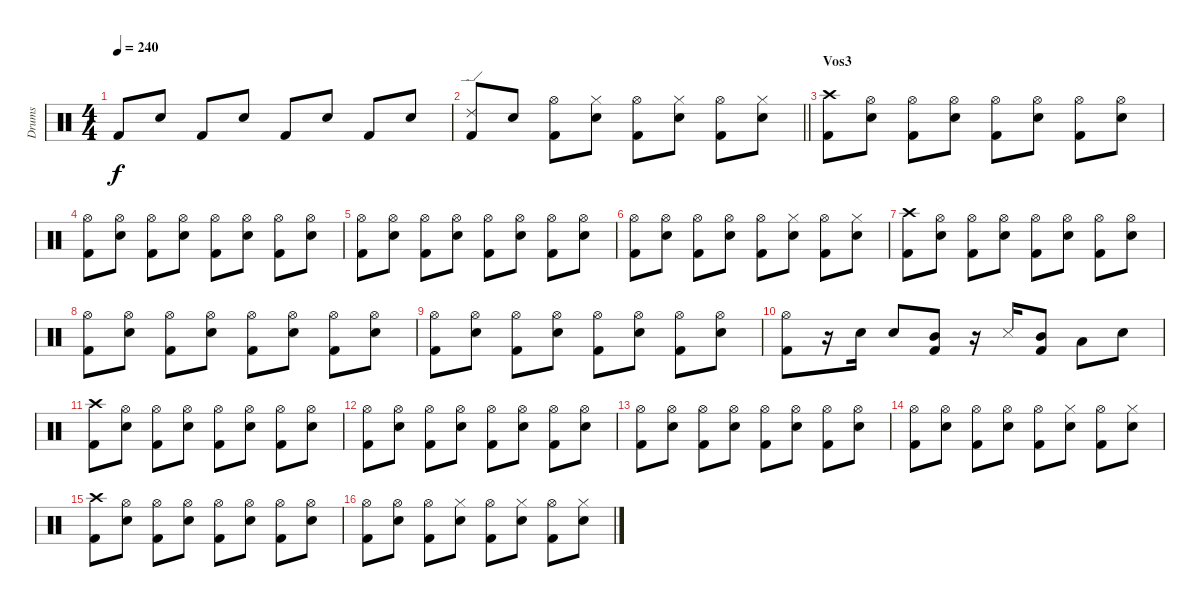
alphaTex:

\track ("Drums" "Drums") {instrument percussion}
\staff {score}
\articulation defaults
\ts (4 4)
\tempo 240
\clef neutral
\ks c "Kick (hit) 2".8{dy f} "Snare (hit) 2".8 "Kick (hit) 2".8 "Snare (hit) 2".8 "Kick (hit) 2".8 "Snare (hit) 2".8 "Kick (hit) 2".8 "Snare (hit) 2".8
|
\barLineRight lightlight
("Ride (edge) 2" "Kick (hit) 2").8 "Snare (hit) 2".8 ("Hi-Hat (open)" "Kick (hit) 2").8 ("Hi-Hat (closed)" "Snare (hit) 2").8 ("Hi-Hat (open)" "Kick (hit) 2").8 ("Hi-Hat (closed)" "Snare (hit) 2").8 ("Hi-Hat (open)" "Kick (hit) 2").8 ("Hi-Hat (closed)" "Snare (hit) 2").8 |
\section ("" "Vos3")
("Crash high (hit)" "Kick (hit) 2").8 ("Hi-Hat (open)" "Snare (hit) 2").8 ("Hi-Hat (open)" "Kick (hit) 2").8 ("Hi-Hat (open)" "Snare (hit) 2").8 ("Hi-Hat (open)" "Kick (hit) 2").8 ("Hi-Hat (open)" "Snare (hit) 2").8 ("Hi-Hat (open)" "Kick (hit) 2").8 ("Hi-Hat (open)" "Snare (hit) 2").8 |
("Hi-Hat (open)" "Kick (hit) 2").8 ("Hi-Hat (open)" "Snare (hit) 2").8 ("Hi-Hat (open)" "Kick (hit) 2").8 ("Hi-Hat (open)" "Snare (hit) 2").8 ("Hi-Hat (open)" "Kick (hit) 2").8 ("Hi-Hat (open)" "Snare (hit) 2").8 ("Hi-Hat (open)" "Kick (hit) 2").8 ("Hi-Hat (open)" "Snare (hit) 2").8 |
("Hi-Hat (open)" "Kick (hit) 2").8 ("Hi-Hat (open)" "Snare (hit) 2").8 ("Hi-Hat (open)" "Kick (hit) 2").8 ("Hi-Hat (open)" "Snare (hit) 2").8 ("Hi-Hat (open)" "Kick (hit) 2").8 ("Hi-Hat (open)" "Snare (hit) 2").8 ("Hi-Hat (open)" "Kick (hit) 2").8 ("Hi-Hat (open)" "Snare (hit) 2").8 |
("Hi-Hat (open)" "Kick (hit) 2").8 ("Hi-Hat (open)" "Snare (hit) 2").8 ("Hi-Hat (open)" "Kick (hit) 2").8 ("Hi-Hat (open)" "Snare (hit) 2").8 ("Hi-Hat (open)" "Kick (hit) 2").8 ("Hi-Hat (closed)" "Snare (hit) 2").8 ("Hi-Hat (open)" "Kick (hit) 2").8 ("Hi-Hat (closed)" "Snare (hit) 2").8 |
("Crash high (hit)" "Kick (hit) 2").8 ("Hi-Hat (open)" "Snare (hit) 2").8 ("Hi-Hat (open)" "Kick (hit) 2").8 ("Hi-Hat (open)" "Snare (hit) 2").8 ("Hi-Hat (open)" "Kick (hit) 2").8 ("Hi-Hat (open)" "Snare (hit) 2").8 ("Hi-Hat (open)" "Kick (hit) 2").8 ("Hi-Hat (open)" "Snare (hit) 2").8 |
("Hi-Hat (open)" "Kick (hit) 2").8 ("Hi-Hat (open)" "Snare (hit) 2").8 ("Hi-Hat (open)" "Kick (hit) 2").8 ("Hi-Hat (open)" "Snare (hit) 2").8 ("Hi-Hat (open)" "Kick (hit) 2").8 ("Hi-Hat (open)" "Snare (hit) 2").8 ("Hi-Hat (open)" "Kick (hit) 2").8 ("Hi-Hat (open)" "Snare (hit) 2").8 |
("Hi-Hat (open)" "Kick (hit) 2").8 ("Hi-Hat (open)" "Snare (hit) 2").8 ("Hi-Hat (open)" "Kick (hit) 2").8 ("Hi-Hat (open)" "Snare (hit) 2").8 ("Hi-Hat (open)" "Kick (hit) 2").8 ("Hi-Hat (open)" "Snare (hit) 2").8 ("Hi-Hat (open)" "Kick (hit) 2").8 ("Hi-Hat (open)" "Snare (hit) 2").8 |
("Hi-Hat (open)" "Kick (hit) 2").8 r.16 "Snare (hit) 2".16 "Snare (hit) 2".8 ("Kick (hit) 2" "Mid Tom (hit)").8 r.16 "Snare (side stick) 3".16 ("Kick (hit) 2" "Mid Tom (hit)").8 "Low Tom (hit)".8 "Snare (hit) 2".8 |
("Crash high (hit)" "Kick (hit) 2").8 ("Hi-Hat (open)" "Snare (hit) 2").8 ("Hi-Hat (open)" "Kick (hit) 2").8 ("Hi-Hat (open)" "Snare (hit) 2").8 ("Hi-Hat (open)" "Kick (hit) 2").8 ("Hi-Hat (open)" "Snare (hit) 2").8 ("Hi-Hat (open)" "Kick (hit) 2").8 ("Hi-Hat (open)" "Snare (hit) 2").8 |
("Hi-Hat (open)" "Kick (hit) 2").8 ("Hi-Hat (open)" "Snare (hit) 2").8 ("Hi-Hat (open)" "Kick (hit) 2").8 ("Hi-Hat (open)" "Snare (hit) 2").8 ("Hi-Hat (open)" "Kick (hit) 2").8 ("Hi-Hat (open)" "Snare (hit) 2").8 ("Hi-Hat (open)" "Kick (hit) 2").8 ("Hi-Hat (open)" "Snare (hit) 2").8 |
("Hi-Hat (open)" "Kick (hit) 2").8 ("Hi-Hat (open)" "Snare (hit) 2").8 ("Hi-Hat (open)" "Kick (hit) 2").8 ("Hi-Hat (open)" "Snare (hit) 2").8 ("Hi-Hat (open)" "Kick (hit) 2").8 ("Hi-Hat (open)" "Snare (hit) 2").8 ("Hi-Hat (open)" "Kick (hit) 2").8 ("Hi-Hat (open)" "Snare (hit) 2").8 |
("Hi-Hat (open)" "Kick (hit) 2").8 ("Hi-Hat (open)" "Snare (hit) 2").8 ("Hi-Hat (open)" "Kick (hit) 2").8 ("Hi-Hat (open)" "Snare (hit) 2").8 ("Hi-Hat (open)" "Kick (hit) 2").8 ("Hi-Hat (closed)" "Snare (hit) 2").8 ("Hi-Hat (open)" "Kick (hit) 2").8 ("Hi-Hat (closed)" "Snare (hit) 2").8 |
("Crash high (hit)" "Kick (hit) 2").8 ("Hi-Hat (open)" "Snare (hit) 2").8 ("Hi-Hat (open)" "Kick (hit) 2").8 ("Hi-Hat (open)" "Snare (hit) 2").8 ("Hi-Hat (open)" "Kick (hit) 2").8 ("Hi-Hat (open)" "Snare (hit) 2").8 ("Hi-Hat (open)" "Kick (hit) 2").8 ("Hi-Hat (open)" "Snare (hit) 2").8 |
("Hi-Hat (open)" "Kick (hit) 2").8 ("Hi-Hat (open)" "Snare (hit) 2").8 ("Hi-Hat (open)" "Kick (hit) 2").8 ("Hi-Hat (closed)" "Snare (hit) 2").8 ("Hi-Hat (open)" "Kick (hit) 2").8 ("Hi-Hat (closed)" "Snare (hit) 2").8 ("Hi-Hat (open)" "Kick (hit) 2").8 ("Hi-Hat (closed)" "Snare (hit) 2").8
